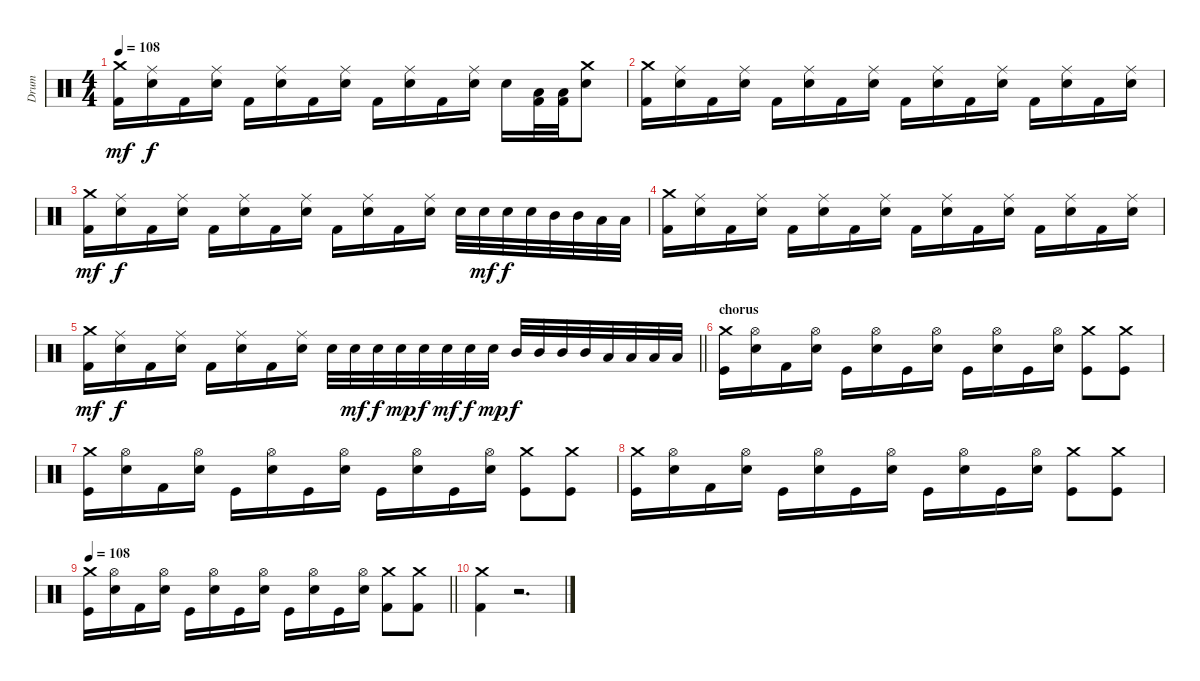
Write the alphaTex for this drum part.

\track ("Drum" "Drum") {instrument percussion}
\staff {score}
\articulation defaults
\ts (4 4)
\tempo 108
\clef neutral
\ks c
("Crash medium (hit)" "Kick (hit) 2").16{dy mf} ("Ride (middle)" "Snare (hit) 2").16{dy f} "Kick (hit) 2".16 ("Ride (middle)" "Snare (hit) 2").16 "Kick (hit) 2".16 ("Ride (middle)" "Snare (hit) 2").16 "Kick (hit) 2".16 ("Ride (middle)" "Snare (hit) 2").16 "Kick (hit) 2".16 ("Ride (middle)" "Snare (hit) 2").16 "Kick (hit) 2".16 ("Ride (middle)" "Snare (hit) 2").16 "Snare (hit) 2".16 ("Low Tom (hit)" "Kick (hit) 2").32 ("Low Tom (hit)" "Kick (hit) 2").32 ("Crash medium (hit)" "Snare (hit) 2").8 |
("Crash medium (hit)" "Kick (hit) 2").16 ("Ride (middle)" "Snare (hit) 2").16 "Kick (hit) 2".16 ("Ride (middle)" "Snare (hit) 2").16 "Kick (hit) 2".16 ("Ride (middle)" "Snare (hit) 2").16 "Kick (hit) 2".16 ("Ride (middle)" "Snare (hit) 2").16 "Kick (hit) 2".16 ("Ride (middle)" "Snare (hit) 2").16 "Kick (hit) 2".16 ("Ride (middle)" "Snare (hit) 2").16 "Kick (hit) 2".16 ("Ride (middle)" "Snare (hit) 2").16 "Kick (hit) 2".16 ("Ride (middle)" "Snare (hit) 2").16 |
("Crash medium (hit)" "Kick (hit) 2").16{dy mf} ("Ride (middle)" "Snare (hit) 2").16{dy f} "Kick (hit) 2".16 ("Ride (middle)" "Snare (hit) 2").16 "Kick (hit) 2".16 ("Ride (middle)" "Snare (hit) 2").16 "Kick (hit) 2".16 ("Ride (middle)" "Snare (hit) 2").16 "Kick (hit) 2".16 ("Ride (middle)" "Snare (hit) 2").16 "Kick (hit) 2".16 ("Ride (middle)" "Snare (hit) 2").16 "Snare (hit) 2".32 "Snare (hit) 2".32{dy mf} "Snare (hit) 2".32{dy f} "Snare (hit) 2".32 "Mid Tom (hit)".32 "Mid Tom (hit)".32 "Low Tom (hit)".32 "Low Tom (hit)".32 |
("Crash medium (hit)" "Kick (hit) 2").16 ("Ride (middle)" "Snare (hit) 2").16 "Kick (hit) 2".16 ("Ride (middle)" "Snare (hit) 2").16 "Kick (hit) 2".16 ("Ride (middle)" "Snare (hit) 2").16 "Kick (hit) 2".16 ("Ride (middle)" "Snare (hit) 2").16 "Kick (hit) 2".16 ("Ride (middle)" "Snare (hit) 2").16 "Kick (hit) 2".16 ("Ride (middle)" "Snare (hit) 2").16 "Kick (hit) 2".16 ("Ride (middle)" "Snare (hit) 2").16 "Kick (hit) 2".16 ("Ride (middle)" "Snare (hit) 2").16 |
\barLineRight lightlight
("Crash medium (hit)" "Kick (hit) 2").16{dy mf} ("Ride (middle)" "Snare (hit) 2").16{dy f} "Kick (hit) 2".16 ("Ride (middle)" "Snare (hit) 2").16 "Kick (hit) 2".16 ("Ride (middle)" "Snare (hit) 2").16 "Kick (hit) 2".16 ("Ride (middle)" "Snare (hit) 2").16 "Snare (hit) 2".32 "Snare (hit) 2".32{dy mf} "Snare (hit) 2".32{dy f} "Snare (hit) 2".32{dy mp} "Snare (hit) 2".32{dy f} "Snare (hit) 2".32{dy mf} "Snare (hit) 2".32{dy f} "Snare (hit) 2".32{dy mp} "Mid Tom (hit)".32{dy f} "Mid Tom (hit)".32 "Mid Tom (hit)".32 "Mid Tom (hit)".32 "Low Tom (hit)".32 "Low Tom (hit)".32 "Low Tom (hit)".32 "Low Tom (hit)".32 |
\section ("" "chorus")
("Crash medium (hit)" "Kick (hit)").16 ("Hi-Hat (open)" "Snare (hit) 2").16 "Kick (hit) 2".16 ("Hi-Hat (open)" "Snare (hit) 2").16 "Kick (hit)".16 ("Hi-Hat (open)" "Snare (hit) 2").16 "Kick (hit)".16 ("Hi-Hat (open)" "Snare (hit) 2").16 "Kick (hit)".16 ("Hi-Hat (open)" "Snare (hit) 2").16 "Kick (hit)".16 ("Hi-Hat (open)" "Snare (hit) 2").16 ("Crash medium (hit)" "Kick (hit)").8 ("Crash medium (hit)" "Kick (hit)").8 |
("Crash medium (hit)" "Kick (hit)").16 ("Hi-Hat (open)" "Snare (hit) 2").16 "Kick (hit) 2".16 ("Hi-Hat (open)" "Snare (hit) 2").16 "Kick (hit)".16 ("Hi-Hat (open)" "Snare (hit) 2").16 "Kick (hit)".16 ("Hi-Hat (open)" "Snare (hit) 2").16 "Kick (hit)".16 ("Hi-Hat (open)" "Snare (hit) 2").16 "Kick (hit)".16 ("Hi-Hat (open)" "Snare (hit) 2").16 ("Crash medium (hit)" "Kick (hit)").8 ("Crash medium (hit)" "Kick (hit)").8 |
("Crash medium (hit)" "Kick (hit)").16 ("Hi-Hat (open)" "Snare (hit) 2").16 "Kick (hit) 2".16 ("Hi-Hat (open)" "Snare (hit) 2").16 "Kick (hit)".16 ("Hi-Hat (open)" "Snare (hit) 2").16 "Kick (hit)".16 ("Hi-Hat (open)" "Snare (hit) 2").16 "Kick (hit)".16 ("Hi-Hat (open)" "Snare (hit) 2").16 "Kick (hit)".16 ("Hi-Hat (open)" "Snare (hit) 2").16 ("Crash medium (hit)" "Kick (hit)").8 ("Crash medium (hit)" "Kick (hit)").8 |
\tempo 108
\barLineRight lightlight
("Crash medium (hit)" "Kick (hit)").16 ("Hi-Hat (open)" "Snare (hit) 2").16 "Kick (hit) 2".16 ("Hi-Hat (open)" "Snare (hit) 2").16 "Kick (hit)".16 ("Hi-Hat (open)" "Snare (hit) 2").16 "Kick (hit)".16 ("Hi-Hat (open)" "Snare (hit) 2").16 "Kick (hit)".16 ("Hi-Hat (open)" "Snare (hit) 2").16 "Kick (hit)".16 ("Hi-Hat (open)" "Snare (hit) 2").16 ("Crash medium (hit)" "Kick (hit) 2").8 ("Crash medium (hit)" "Kick (hit) 2").8 |
("Crash medium (hit)" "Kick (hit) 2").4 r.2{d}
